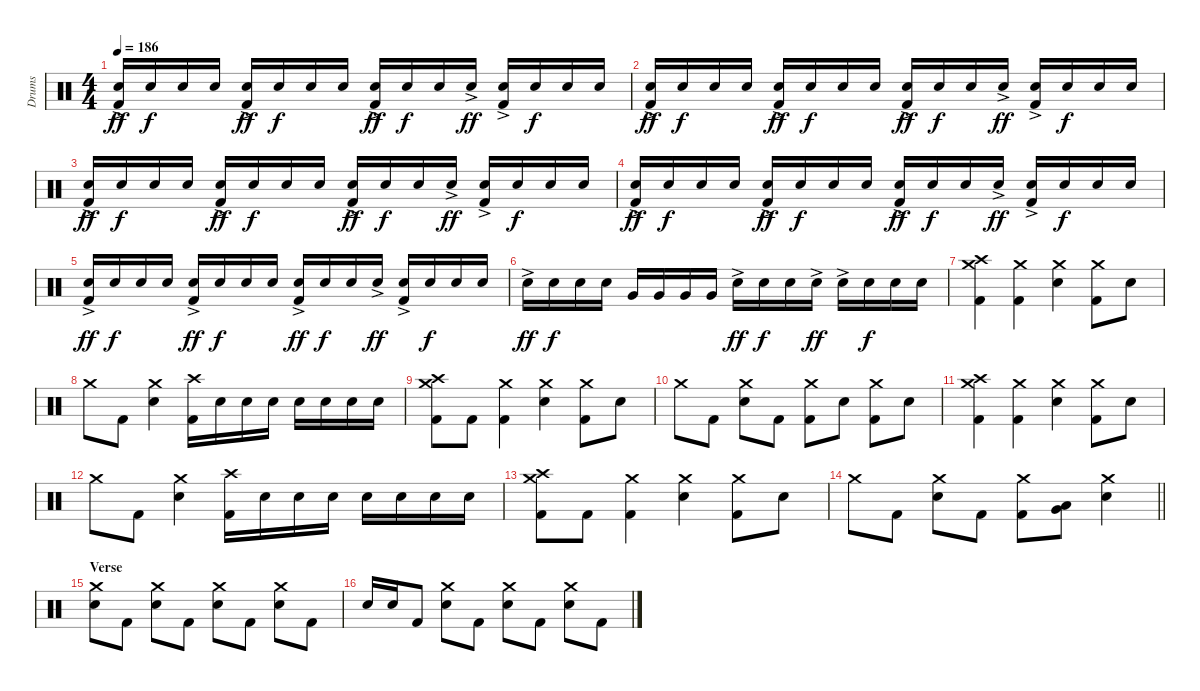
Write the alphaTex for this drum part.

\track ("Drums" "Drums") {instrument percussion}
\staff {score}
\articulation defaults
\ts (4 4)
\tempo 186
\clef neutral
\ks c
("Electric Snare (hit)"{ac} "Kick (hit) 2").16{dy ff} "Electric Snare (hit)".16{dy f} "Electric Snare (hit)".16 "Electric Snare (hit)".16 ("Electric Snare (hit)"{ac} "Kick (hit) 2").16{dy ff} "Electric Snare (hit)".16{dy f} "Electric Snare (hit)".16 "Electric Snare (hit)".16 ("Electric Snare (hit)"{ac} "Kick (hit) 2").16{dy ff} "Electric Snare (hit)".16{dy f} "Electric Snare (hit)".16 "Electric Snare (hit)"{ac}.16{dy ff} ("Electric Snare (hit)"{ac} "Kick (hit) 2").16 "Electric Snare (hit)".16{dy f} "Electric Snare (hit)".16 "Electric Snare (hit)".16 |
("Electric Snare (hit)"{ac} "Kick (hit) 2").16{dy ff} "Electric Snare (hit)".16{dy f} "Electric Snare (hit)".16 "Electric Snare (hit)".16 ("Electric Snare (hit)"{ac} "Kick (hit) 2").16{dy ff} "Electric Snare (hit)".16{dy f} "Electric Snare (hit)".16 "Electric Snare (hit)".16 ("Electric Snare (hit)"{ac} "Kick (hit) 2").16{dy ff} "Electric Snare (hit)".16{dy f} "Electric Snare (hit)".16 "Electric Snare (hit)"{ac}.16{dy ff} ("Electric Snare (hit)"{ac} "Kick (hit) 2").16 "Electric Snare (hit)".16{dy f} "Electric Snare (hit)".16 "Electric Snare (hit)".16 |
("Electric Snare (hit)"{ac} "Kick (hit) 2").16{dy ff} "Electric Snare (hit)".16{dy f} "Electric Snare (hit)".16 "Electric Snare (hit)".16 ("Electric Snare (hit)"{ac} "Kick (hit) 2").16{dy ff} "Electric Snare (hit)".16{dy f} "Electric Snare (hit)".16 "Electric Snare (hit)".16 ("Electric Snare (hit)"{ac} "Kick (hit) 2").16{dy ff} "Electric Snare (hit)".16{dy f} "Electric Snare (hit)".16 "Electric Snare (hit)"{ac}.16{dy ff} ("Electric Snare (hit)"{ac} "Kick (hit) 2").16 "Electric Snare (hit)".16{dy f} "Electric Snare (hit)".16 "Electric Snare (hit)".16 |
("Electric Snare (hit)"{ac} "Kick (hit) 2").16{dy ff} "Electric Snare (hit)".16{dy f} "Electric Snare (hit)".16 "Electric Snare (hit)".16 ("Electric Snare (hit)"{ac} "Kick (hit) 2").16{dy ff} "Electric Snare (hit)".16{dy f} "Electric Snare (hit)".16 "Electric Snare (hit)".16 ("Electric Snare (hit)"{ac} "Kick (hit) 2").16{dy ff} "Electric Snare (hit)".16{dy f} "Electric Snare (hit)".16 "Electric Snare (hit)"{ac}.16{dy ff} ("Electric Snare (hit)"{ac} "Kick (hit) 2").16 "Electric Snare (hit)".16{dy f} "Electric Snare (hit)".16 "Electric Snare (hit)".16 |
("Electric Snare (hit)"{ac} "Kick (hit) 2").16{dy ff} "Electric Snare (hit)".16{dy f} "Electric Snare (hit)".16 "Electric Snare (hit)".16 ("Electric Snare (hit)"{ac} "Kick (hit) 2").16{dy ff} "Electric Snare (hit)".16{dy f} "Electric Snare (hit)".16 "Electric Snare (hit)".16 ("Electric Snare (hit)"{ac} "Kick (hit) 2").16{dy ff} "Electric Snare (hit)".16{dy f} "Electric Snare (hit)".16 "Electric Snare (hit)"{ac}.16{dy ff} ("Electric Snare (hit)"{ac} "Kick (hit) 2").16 "Electric Snare (hit)".16{dy f} "Electric Snare (hit)".16 "Electric Snare (hit)".16 |
"Electric Snare (hit)"{ac}.16{dy ff} "Electric Snare (hit)".16{dy f} "Electric Snare (hit)".16 "Electric Snare (hit)".16 "Very Low Tom (hit)".16 "Very Low Tom (hit)".16 "Very Low Tom (hit)".16 "Very Low Tom (hit)".16 "Electric Snare (hit)"{ac}.16{dy ff} "Electric Snare (hit)".16{dy f} "Electric Snare (hit)".16 "Electric Snare (hit)"{ac}.16{dy ff} "Electric Snare (hit)"{ac}.16 "Electric Snare (hit)".16{dy f} "Electric Snare (hit)".16 "Electric Snare (hit)".16 |
("Crash medium (hit)" "Crash high (hit)" "Kick (hit) 2").4 ("Crash medium (hit)" "Kick (hit) 2").4 ("Crash medium (hit)" "Electric Snare (hit)").4 ("Crash medium (hit)" "Kick (hit) 2").8 "Electric Snare (hit)".8 |
"Crash medium (hit)".8 "Kick (hit) 2".8 ("Crash medium (hit)" "Electric Snare (hit)").4 ("Crash high (hit)" "Kick (hit) 2").16 "Electric Snare (hit)".16 "Electric Snare (hit)".16 "Electric Snare (hit)".16 "Electric Snare (hit)".16 "Electric Snare (hit)".16 "Electric Snare (hit)".16 "Electric Snare (hit)".16 |
("Crash medium (hit)" "Crash high (hit)" "Kick (hit) 2").8 "Kick (hit) 2".8 ("Crash medium (hit)" "Kick (hit) 2").4 ("Crash medium (hit)" "Electric Snare (hit)").4 ("Crash medium (hit)" "Kick (hit) 2").8 "Electric Snare (hit)".8 |
"Crash medium (hit)".8 "Kick (hit) 2".8 ("Crash medium (hit)" "Electric Snare (hit)").8 "Kick (hit) 2".8 ("Crash medium (hit)" "Kick (hit) 2").8 "Electric Snare (hit)".8 ("Crash medium (hit)" "Kick (hit) 2").8 "Electric Snare (hit)".8 |
("Crash medium (hit)" "Crash high (hit)" "Kick (hit) 2").4 ("Crash medium (hit)" "Kick (hit) 2").4 ("Crash medium (hit)" "Electric Snare (hit)").4 ("Crash medium (hit)" "Kick (hit) 2").8 "Electric Snare (hit)".8 |
"Crash medium (hit)".8 "Kick (hit) 2".8 ("Crash medium (hit)" "Electric Snare (hit)").4 ("Crash high (hit)" "Kick (hit) 2").16 "Electric Snare (hit)".16 "Electric Snare (hit)".16 "Electric Snare (hit)".16 "Electric Snare (hit)".16 "Electric Snare (hit)".16 "Electric Snare (hit)".16 "Electric Snare (hit)".16 |
("Crash medium (hit)" "Crash high (hit)" "Kick (hit) 2").8 "Kick (hit) 2".8 ("Crash medium (hit)" "Kick (hit) 2").4 ("Crash medium (hit)" "Electric Snare (hit)").4 ("Crash medium (hit)" "Kick (hit) 2").8 "Electric Snare (hit)".8 |
\barLineRight lightlight "Crash medium (hit)".8 "Kick (hit) 2".8
("Crash medium (hit)" "Electric Snare (hit)").8 "Kick (hit) 2".8 ("Crash medium (hit)" "Kick (hit) 2").8 ("Low Tom (hit)" "Very Low Tom (hit)").8 ("Crash medium (hit)" "Electric Snare (hit)").4 |
\section ("" "Verse")
("Crash medium (hit)" "Electric Snare (hit)").8 "Kick (hit) 2".8 ("Crash medium (hit)" "Electric Snare (hit)").8 "Kick (hit) 2".8 ("Crash medium (hit)" "Electric Snare (hit)").8 "Kick (hit) 2".8 ("Crash medium (hit)" "Electric Snare (hit)").8 "Kick (hit) 2".8 |
"Electric Snare (hit)".16 "Electric Snare (hit)".16 "Kick (hit) 2".8 ("Crash medium (hit)" "Electric Snare (hit)").8 "Kick (hit) 2".8 ("Crash medium (hit)" "Electric Snare (hit)").8 "Kick (hit) 2".8 ("Crash medium (hit)" "Electric Snare (hit)").8 "Kick (hit) 2".8
